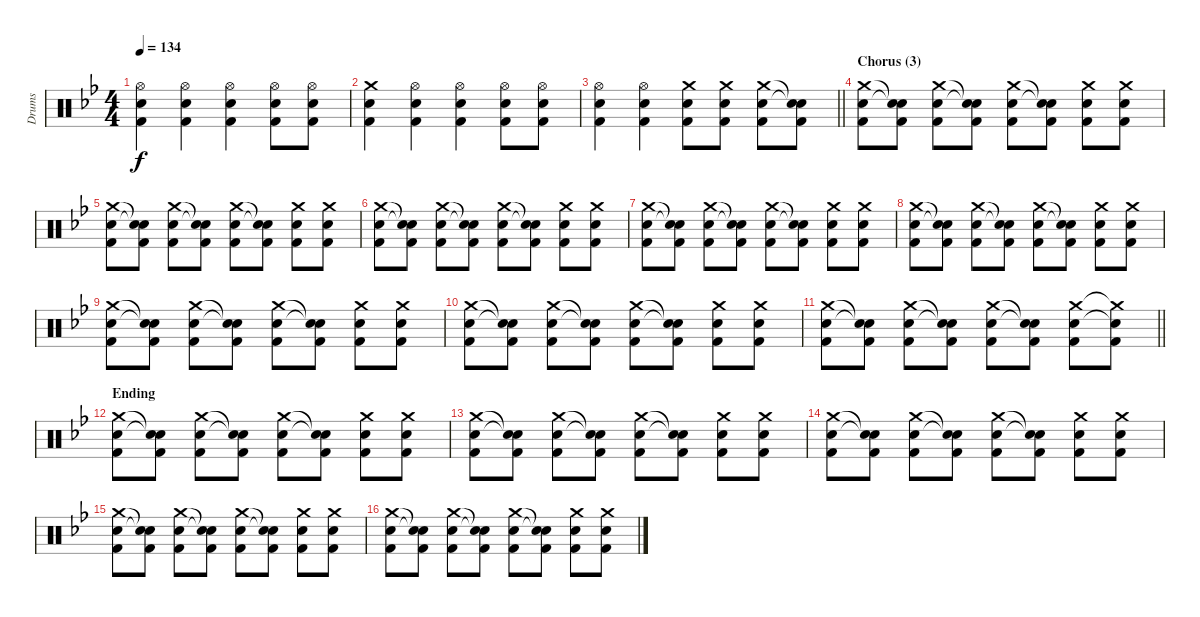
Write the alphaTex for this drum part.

\track ("Drums" "Drums") {instrument percussion}
\staff {score}
\articulation defaults
\ts (4 4)
\tempo 134
\clef neutral
\ks gminor
("Hi-Hat (open)" "Electric Snare (hit)" "Kick (hit) 2").4{dy f} ("Hi-Hat (open)" "Electric Snare (hit)" "Kick (hit) 2").4 ("Hi-Hat (open)" "Electric Snare (hit)" "Kick (hit) 2").4 ("Hi-Hat (open)" "Electric Snare (hit)" "Kick (hit) 2").8 ("Hi-Hat (open)" "Electric Snare (hit)" "Kick (hit) 2").8 |
("Crash medium (hit)" "Electric Snare (hit)" "Kick (hit) 2").4 ("Hi-Hat (open)" "Electric Snare (hit)" "Kick (hit) 2").4 ("Hi-Hat (open)" "Electric Snare (hit)" "Kick (hit) 2").4 ("Hi-Hat (open)" "Electric Snare (hit)" "Kick (hit) 2").8 ("Hi-Hat (open)" "Electric Snare (hit)" "Kick (hit) 2").8 |
\barLineRight lightlight
("Hi-Hat (open)" "Electric Snare (hit)" "Kick (hit) 2").4 ("Hi-Hat (open)" "Electric Snare (hit)" "Kick (hit) 2").4 ("Crash medium (hit)" "Electric Snare (hit)" "Kick (hit) 2").8 ("Crash medium (hit)" "Electric Snare (hit)" "Kick (hit) 2").8 ("Crash medium (hit)" "Electric Snare (hit)" "Kick (hit) 2").8 ("Snare (hit)"{t} "Snare (hit)"{t} "Kick (hit) 2").8 |
\section ("" "Chorus (3)")
("Crash medium (hit)" "Electric Snare (hit)" "Kick (hit) 2").8 ("Snare (hit)"{t} "Snare (hit)"{t} "Kick (hit) 2").8 ("Crash medium (hit)" "Electric Snare (hit)" "Kick (hit) 2").8 ("Snare (hit)"{t} "Snare (hit)"{t} "Kick (hit) 2").8 ("Crash medium (hit)" "Electric Snare (hit)" "Kick (hit) 2").8 ("Snare (hit)"{t} "Snare (hit)"{t} "Kick (hit) 2").8 ("Crash medium (hit)" "Electric Snare (hit)" "Kick (hit) 2").8 ("Crash medium (hit)" "Electric Snare (hit)" "Kick (hit) 2").8 |
("Crash medium (hit)" "Electric Snare (hit)" "Kick (hit) 2").8 ("Snare (hit)"{t} "Snare (hit)"{t} "Kick (hit) 2").8 ("Crash medium (hit)" "Electric Snare (hit)" "Kick (hit) 2").8 ("Snare (hit)"{t} "Snare (hit)"{t} "Kick (hit) 2").8 ("Crash medium (hit)" "Electric Snare (hit)" "Kick (hit) 2").8 ("Snare (hit)"{t} "Snare (hit)"{t} "Kick (hit) 2").8 ("Crash medium (hit)" "Electric Snare (hit)" "Kick (hit) 2").8 ("Crash medium (hit)" "Electric Snare (hit)" "Kick (hit) 2").8 |
("Crash medium (hit)" "Electric Snare (hit)" "Kick (hit) 2").8 ("Snare (hit)"{t} "Snare (hit)"{t} "Kick (hit) 2").8 ("Crash medium (hit)" "Electric Snare (hit)" "Kick (hit) 2").8 ("Snare (hit)"{t} "Snare (hit)"{t} "Kick (hit) 2").8 ("Crash medium (hit)" "Electric Snare (hit)" "Kick (hit) 2").8 ("Snare (hit)"{t} "Snare (hit)"{t} "Kick (hit) 2").8 ("Crash medium (hit)" "Electric Snare (hit)" "Kick (hit) 2").8 ("Crash medium (hit)" "Electric Snare (hit)" "Kick (hit) 2").8 |
("Crash medium (hit)" "Electric Snare (hit)" "Kick (hit) 2").8 ("Snare (hit)"{t} "Snare (hit)"{t} "Kick (hit) 2").8 ("Crash medium (hit)" "Electric Snare (hit)" "Kick (hit) 2").8 ("Snare (hit)"{t} "Snare (hit)"{t} "Kick (hit) 2").8 ("Crash medium (hit)" "Electric Snare (hit)" "Kick (hit) 2").8 ("Snare (hit)"{t} "Snare (hit)"{t} "Kick (hit) 2").8 ("Crash medium (hit)" "Electric Snare (hit)" "Kick (hit) 2").8 ("Crash medium (hit)" "Electric Snare (hit)" "Kick (hit) 2").8 |
("Crash medium (hit)" "Electric Snare (hit)" "Kick (hit) 2").8 ("Snare (hit)"{t} "Snare (hit)"{t} "Kick (hit) 2").8 ("Crash medium (hit)" "Electric Snare (hit)" "Kick (hit) 2").8 ("Snare (hit)"{t} "Snare (hit)"{t} "Kick (hit) 2").8 ("Crash medium (hit)" "Electric Snare (hit)" "Kick (hit) 2").8 ("Snare (hit)"{t} "Snare (hit)"{t} "Kick (hit) 2").8 ("Crash medium (hit)" "Electric Snare (hit)" "Kick (hit) 2").8 ("Crash medium (hit)" "Electric Snare (hit)" "Kick (hit) 2").8 |
("Crash medium (hit)" "Electric Snare (hit)" "Kick (hit) 2").8 ("Snare (hit)"{t} "Snare (hit)"{t} "Kick (hit) 2").8 ("Crash medium (hit)" "Electric Snare (hit)" "Kick (hit) 2").8 ("Snare (hit)"{t} "Snare (hit)"{t} "Kick (hit) 2").8 ("Crash medium (hit)" "Electric Snare (hit)" "Kick (hit) 2").8 ("Snare (hit)"{t} "Snare (hit)"{t} "Kick (hit) 2").8 ("Crash medium (hit)" "Electric Snare (hit)" "Kick (hit) 2").8 ("Crash medium (hit)" "Electric Snare (hit)" "Kick (hit) 2").8 |
("Crash medium (hit)" "Electric Snare (hit)" "Kick (hit) 2").8 ("Snare (hit)"{t} "Snare (hit)"{t} "Kick (hit) 2").8 ("Crash medium (hit)" "Electric Snare (hit)" "Kick (hit) 2").8 ("Snare (hit)"{t} "Snare (hit)"{t} "Kick (hit) 2").8 ("Crash medium (hit)" "Electric Snare (hit)" "Kick (hit) 2").8 ("Snare (hit)"{t} "Snare (hit)"{t} "Kick (hit) 2").8 ("Crash medium (hit)" "Electric Snare (hit)" "Kick (hit) 2").8 ("Crash medium (hit)" "Electric Snare (hit)" "Kick (hit) 2").8 |
\barLineRight lightlight
("Crash medium (hit)" "Electric Snare (hit)" "Kick (hit) 2").8 ("Snare (hit)"{t} "Snare (hit)"{t} "Kick (hit) 2").8 ("Crash medium (hit)" "Electric Snare (hit)" "Kick (hit) 2").8 ("Snare (hit)"{t} "Snare (hit)"{t} "Kick (hit) 2").8 ("Crash medium (hit)" "Electric Snare (hit)" "Kick (hit) 2").8 ("Snare (hit)"{t} "Snare (hit)"{t} "Kick (hit) 2").8 ("Crash medium (hit)" "Electric Snare (hit)" "Kick (hit) 2").8 ("Crash medium (hit)"{t} "Electric Snare (hit)"{t} "Kick (hit) 2").8 |
\section ("" "Ending")
("Crash medium (hit)" "Electric Snare (hit)" "Kick (hit) 2").8 ("Snare (hit)"{t} "Snare (hit)"{t} "Kick (hit) 2").8 ("Crash medium (hit)" "Electric Snare (hit)" "Kick (hit) 2").8 ("Snare (hit)"{t} "Snare (hit)"{t} "Kick (hit) 2").8 ("Crash medium (hit)" "Electric Snare (hit)" "Kick (hit) 2").8 ("Snare (hit)"{t} "Snare (hit)"{t} "Kick (hit) 2").8 ("Crash medium (hit)" "Electric Snare (hit)" "Kick (hit) 2").8 ("Crash medium (hit)" "Electric Snare (hit)" "Kick (hit) 2").8 |
("Crash medium (hit)" "Electric Snare (hit)" "Kick (hit) 2").8 ("Snare (hit)"{t} "Snare (hit)"{t} "Kick (hit) 2").8 ("Crash medium (hit)" "Electric Snare (hit)" "Kick (hit) 2").8 ("Snare (hit)"{t} "Snare (hit)"{t} "Kick (hit) 2").8 ("Crash medium (hit)" "Electric Snare (hit)" "Kick (hit) 2").8 ("Snare (hit)"{t} "Snare (hit)"{t} "Kick (hit) 2").8 ("Crash medium (hit)" "Electric Snare (hit)" "Kick (hit) 2").8 ("Crash medium (hit)" "Electric Snare (hit)" "Kick (hit) 2").8 |
("Crash medium (hit)" "Electric Snare (hit)" "Kick (hit) 2").8 ("Snare (hit)"{t} "Snare (hit)"{t} "Kick (hit) 2").8 ("Crash medium (hit)" "Electric Snare (hit)" "Kick (hit) 2").8 ("Snare (hit)"{t} "Snare (hit)"{t} "Kick (hit) 2").8 ("Crash medium (hit)" "Electric Snare (hit)" "Kick (hit) 2").8 ("Snare (hit)"{t} "Snare (hit)"{t} "Kick (hit) 2").8 ("Crash medium (hit)" "Electric Snare (hit)" "Kick (hit) 2").8 ("Crash medium (hit)" "Electric Snare (hit)" "Kick (hit) 2").8 |
("Crash medium (hit)" "Electric Snare (hit)" "Kick (hit) 2").8 ("Snare (hit)"{t} "Snare (hit)"{t} "Kick (hit) 2").8 ("Crash medium (hit)" "Electric Snare (hit)" "Kick (hit) 2").8 ("Snare (hit)"{t} "Snare (hit)"{t} "Kick (hit) 2").8 ("Crash medium (hit)" "Electric Snare (hit)" "Kick (hit) 2").8 ("Snare (hit)"{t} "Snare (hit)"{t} "Kick (hit) 2").8 ("Crash medium (hit)" "Electric Snare (hit)" "Kick (hit) 2").8 ("Crash medium (hit)" "Electric Snare (hit)" "Kick (hit) 2").8 |
("Crash medium (hit)" "Electric Snare (hit)" "Kick (hit) 2").8 ("Snare (hit)"{t} "Snare (hit)"{t} "Kick (hit) 2").8 ("Crash medium (hit)" "Electric Snare (hit)" "Kick (hit) 2").8 ("Snare (hit)"{t} "Snare (hit)"{t} "Kick (hit) 2").8 ("Crash medium (hit)" "Electric Snare (hit)" "Kick (hit) 2").8 ("Snare (hit)"{t} "Snare (hit)"{t} "Kick (hit) 2").8 ("Crash medium (hit)" "Electric Snare (hit)" "Kick (hit) 2").8 ("Crash medium (hit)" "Electric Snare (hit)" "Kick (hit) 2").8
